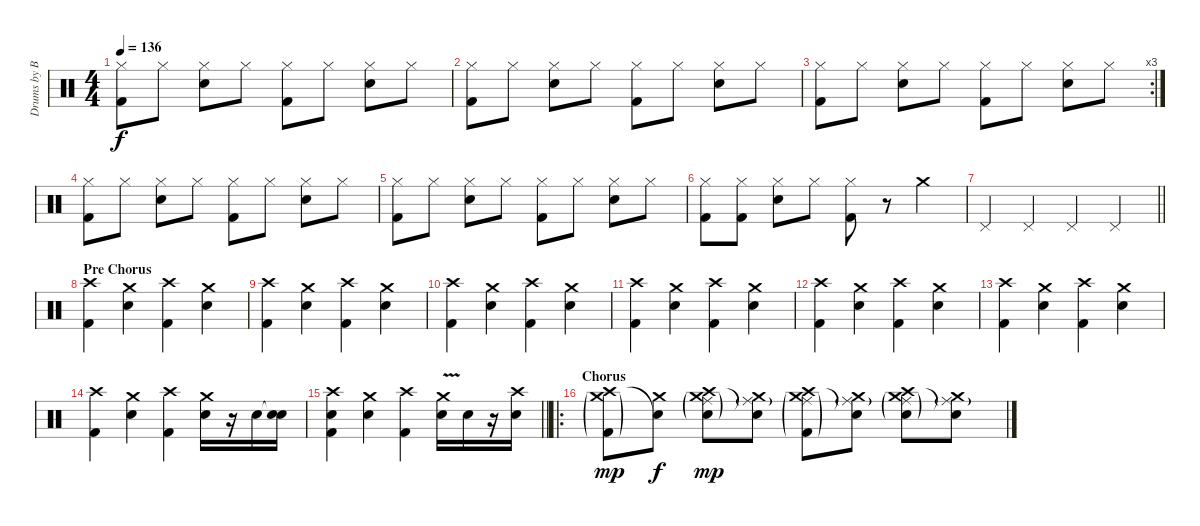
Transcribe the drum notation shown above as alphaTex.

\track ("Drums by Blackgk" "Drums by B") {instrument percussion}
\staff {score}
\articulation defaults
\ts (4 4)
\tempo 136
\clef neutral
\ks c
("Hi-Hat (closed)" "Kick (hit) 2").8{dy f} "Hi-Hat (closed)".8 ("Snare (hit) 2" "Hi-Hat (closed)").8 "Hi-Hat (closed)".8 ("Hi-Hat (closed)" "Kick (hit) 2").8 "Hi-Hat (closed)".8 ("Snare (hit) 2" "Hi-Hat (closed)").8 "Hi-Hat (closed)".8 |
("Hi-Hat (closed)" "Kick (hit) 2").8 "Hi-Hat (closed)".8 ("Snare (hit) 2" "Hi-Hat (closed)").8 "Hi-Hat (closed)".8 ("Hi-Hat (closed)" "Kick (hit) 2").8 "Hi-Hat (closed)".8 ("Snare (hit) 2" "Hi-Hat (closed)").8 "Hi-Hat (closed)".8 |
\rc 3
("Hi-Hat (closed)" "Kick (hit) 2").8 "Hi-Hat (closed)".8 ("Snare (hit) 2" "Hi-Hat (closed)").8 "Hi-Hat (closed)".8 ("Hi-Hat (closed)" "Kick (hit) 2").8 "Hi-Hat (closed)".8 ("Snare (hit) 2" "Hi-Hat (closed)").8 "Hi-Hat (closed)".8 |
("Hi-Hat (closed)" "Kick (hit) 2").8 "Hi-Hat (closed)".8 ("Snare (hit) 2" "Hi-Hat (closed)").8 "Hi-Hat (closed)".8 ("Hi-Hat (closed)" "Kick (hit) 2").8 "Hi-Hat (closed)".8 ("Snare (hit) 2" "Hi-Hat (closed)").8 "Hi-Hat (closed)".8 |
("Hi-Hat (closed)" "Kick (hit) 2").8 "Hi-Hat (closed)".8 ("Snare (hit) 2" "Hi-Hat (closed)").8 "Hi-Hat (closed)".8 ("Hi-Hat (closed)" "Kick (hit) 2").8 "Hi-Hat (closed)".8 ("Snare (hit) 2" "Hi-Hat (closed)").8 "Hi-Hat (closed)".8 |
("Hi-Hat (closed)" "Kick (hit) 2").8 ("Hi-Hat (closed)" "Kick (hit) 2").8 ("Snare (hit) 2" "Hi-Hat (closed)").8 "Hi-Hat (closed)".8 ("Hi-Hat (closed)" "Kick (hit) 2").8 r.8 "Crash medium (hit)".4 |
\barLineRight lightlight "Pedal Hi-Hat (hit)".4 "Pedal Hi-Hat (hit)".4 "Pedal Hi-Hat (hit)".4 "Pedal Hi-Hat (hit)".4
|
\section ("" "Pre Chorus")
("Crash high (hit)" "Kick (hit) 2").4 ("Crash medium (hit)" "Snare (hit) 2").4 ("Crash high (hit)" "Kick (hit) 2").4 ("Crash medium (hit)" "Snare (hit) 2").4 |
("Crash high (hit)" "Kick (hit) 2").4 ("Crash medium (hit)" "Snare (hit) 2").4 ("Crash high (hit)" "Kick (hit) 2").4 ("Crash medium (hit)" "Snare (hit) 2").4 |
("Crash high (hit)" "Kick (hit) 2").4 ("Crash medium (hit)" "Snare (hit) 2").4 ("Crash high (hit)" "Kick (hit) 2").4 ("Crash medium (hit)" "Snare (hit) 2").4 |
("Crash high (hit)" "Kick (hit) 2").4 ("Crash medium (hit)" "Snare (hit) 2").4 ("Crash high (hit)" "Kick (hit) 2").4 ("Crash medium (hit)" "Snare (hit) 2").4 |
("Crash high (hit)" "Kick (hit) 2").4 ("Crash medium (hit)" "Snare (hit) 2").4 ("Crash high (hit)" "Kick (hit) 2").4 ("Crash medium (hit)" "Snare (hit) 2").4 |
("Crash high (hit)" "Kick (hit) 2").4 ("Crash medium (hit)" "Snare (hit) 2").4 ("Crash high (hit)" "Kick (hit) 2").4 ("Crash medium (hit)" "Snare (hit) 2").4 |
("Crash high (hit)" "Kick (hit) 2").4 ("Crash medium (hit)" "Snare (hit) 2").4 ("Crash high (hit)" "Kick (hit) 2").4 ("Crash medium (hit)" "Snare (hit) 2").16 r.16 "Snare (hit) 2".16 ("Snare (hit)"{t} "Snare (hit) 2").16 |
\barLineRight lightlight
("Crash high (hit)" "Snare (hit) 2" "Kick (hit) 2").4 ("Crash medium (hit)" "Snare (hit) 2").4 ("Crash high (hit)" "Kick (hit) 2").4 ("Crash medium (hit)"{v} "Snare (hit) 2").16 "Snare (hit) 2".16 r.16 ("Crash high (hit)" "Snare (hit) 2").16 |
\ro
\section ("" "Chorus")
("Crash medium (hit)"{g} "Crash high (hit)" "Kick (hit) 2"{g}).8{dy mp} ("Crash medium (hit)" "Snare (hit)"{t}).8{dy f} ("Crash medium (hit)"{g} "Ride (middle)"{g} "Crash high (hit)" "Snare (hit) 2"{g}).8{dy mp} ("Crash medium (hit)" "Ride (middle)"{g} "Snare (hit)"{t}).8 ("Crash medium (hit)"{g} "Ride (middle)"{g} "Crash high (hit)" "Kick (hit) 2"{g}).8 ("Crash medium (hit)" "Ride (middle)"{g} "Snare (hit)"{t}).8 ("Crash medium (hit)"{g} "Ride (middle)"{g} "Crash high (hit)" "Snare (hit) 2"{g}).8 ("Crash medium (hit)" "Ride (middle)"{g} "Snare (hit)"{t}).8
